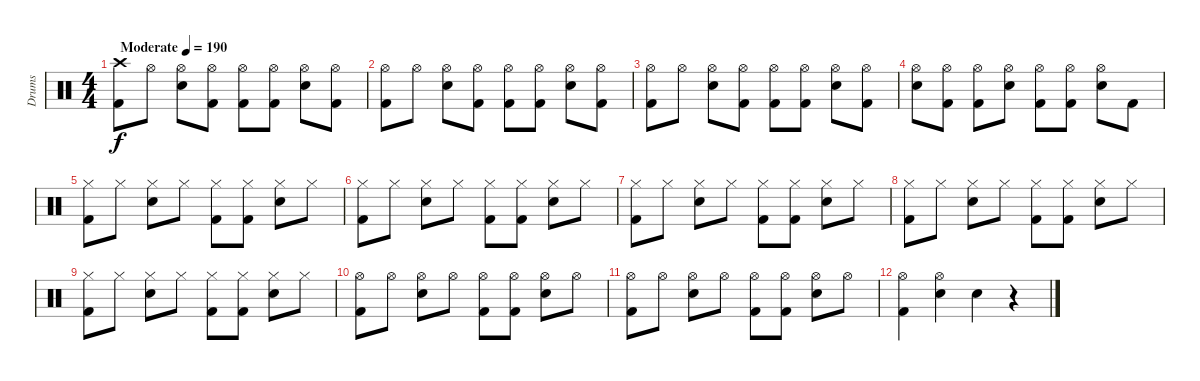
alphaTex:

\track ("Drums" "Drums") {instrument percussion}
\staff {score}
\articulation defaults
\ts (4 4)
\tempo (190 "Moderate")
\clef neutral
\ks c
("Crash high (hit)" "Kick (hit) 2").8{dy f} "Hi-Hat (open)".8 ("Hi-Hat (open)" "Electric Snare (hit)").8 ("Hi-Hat (open)" "Kick (hit) 2").8 ("Kick (hit) 2" "Hi-Hat (open)").8 ("Hi-Hat (open)" "Kick (hit) 2").8 ("Hi-Hat (open)" "Electric Snare (hit)").8 ("Kick (hit) 2" "Hi-Hat (open)").8 |
("Hi-Hat (open)" "Kick (hit) 2").8 "Hi-Hat (open)".8 ("Hi-Hat (open)" "Electric Snare (hit)").8 ("Hi-Hat (open)" "Kick (hit) 2").8 ("Kick (hit) 2" "Hi-Hat (open)").8 ("Hi-Hat (open)" "Kick (hit) 2").8 ("Hi-Hat (open)" "Electric Snare (hit)").8 ("Kick (hit) 2" "Hi-Hat (open)").8 |
("Hi-Hat (open)" "Kick (hit) 2").8 "Hi-Hat (open)".8 ("Hi-Hat (open)" "Electric Snare (hit)").8 ("Hi-Hat (open)" "Kick (hit) 2").8 ("Kick (hit) 2" "Hi-Hat (open)").8 ("Hi-Hat (open)" "Kick (hit) 2").8 ("Hi-Hat (open)" "Electric Snare (hit)").8 ("Kick (hit) 2" "Hi-Hat (open)").8 |
("Electric Snare (hit)" "Hi-Hat (open)").8 ("Kick (hit) 2" "Hi-Hat (open)").8 ("Hi-Hat (open)" "Kick (hit) 2").8 ("Hi-Hat (open)" "Electric Snare (hit)").8 ("Kick (hit) 2" "Hi-Hat (open)").8 ("Hi-Hat (open)" "Kick (hit) 2").8 ("Electric Snare (hit)" "Hi-Hat (open)").8 "Kick (hit) 2".8 |
("Hi-Hat (closed)" "Kick (hit) 2").8 "Hi-Hat (closed)".8 ("Hi-Hat (closed)" "Electric Snare (hit)").8 "Hi-Hat (closed)".8 ("Hi-Hat (closed)" "Kick (hit) 2").8 ("Kick (hit) 2" "Hi-Hat (closed)").8 ("Hi-Hat (closed)" "Electric Snare (hit)").8 "Hi-Hat (closed)".8 |
("Hi-Hat (closed)" "Kick (hit) 2").8 "Hi-Hat (closed)".8 ("Hi-Hat (closed)" "Electric Snare (hit)").8 "Hi-Hat (closed)".8 ("Hi-Hat (closed)" "Kick (hit) 2").8 ("Kick (hit) 2" "Hi-Hat (closed)").8 ("Hi-Hat (closed)" "Electric Snare (hit)").8 "Hi-Hat (closed)".8 |
("Hi-Hat (closed)" "Kick (hit) 2").8 "Hi-Hat (closed)".8 ("Hi-Hat (closed)" "Electric Snare (hit)").8 "Hi-Hat (closed)".8 ("Hi-Hat (closed)" "Kick (hit) 2").8 ("Kick (hit) 2" "Hi-Hat (closed)").8 ("Hi-Hat (closed)" "Electric Snare (hit)").8 "Hi-Hat (closed)".8 |
("Hi-Hat (closed)" "Kick (hit) 2").8 "Hi-Hat (closed)".8 ("Hi-Hat (closed)" "Electric Snare (hit)").8 "Hi-Hat (closed)".8 ("Hi-Hat (closed)" "Kick (hit) 2").8 ("Kick (hit) 2" "Hi-Hat (closed)").8 ("Hi-Hat (closed)" "Electric Snare (hit)").8 "Hi-Hat (closed)".8 |
("Hi-Hat (closed)" "Kick (hit) 2").8 "Hi-Hat (closed)".8 ("Hi-Hat (closed)" "Electric Snare (hit)").8 "Hi-Hat (closed)".8 ("Hi-Hat (closed)" "Kick (hit) 2").8 ("Kick (hit) 2" "Hi-Hat (closed)").8 ("Hi-Hat (closed)" "Electric Snare (hit)").8 "Hi-Hat (closed)".8 |
("Kick (hit) 2" "Hi-Hat (open)").8 "Hi-Hat (open)".8 ("Hi-Hat (open)" "Electric Snare (hit)").8 "Hi-Hat (open)".8 ("Hi-Hat (open)" "Kick (hit) 2").8 ("Kick (hit) 2" "Hi-Hat (open)").8 ("Hi-Hat (open)" "Electric Snare (hit)").8 "Hi-Hat (open)".8 |
("Kick (hit) 2" "Hi-Hat (open)").8 "Hi-Hat (open)".8 ("Hi-Hat (open)" "Electric Snare (hit)").8 "Hi-Hat (open)".8 ("Hi-Hat (open)" "Kick (hit) 2").8 ("Kick (hit) 2" "Hi-Hat (open)").8 ("Hi-Hat (open)" "Electric Snare (hit)").8 "Hi-Hat (open)".8 |
("Hi-Hat (open)" "Kick (hit) 2").4 ("Electric Snare (hit)" "Hi-Hat (open)").4 "Electric Snare (hit)".4 r.4
